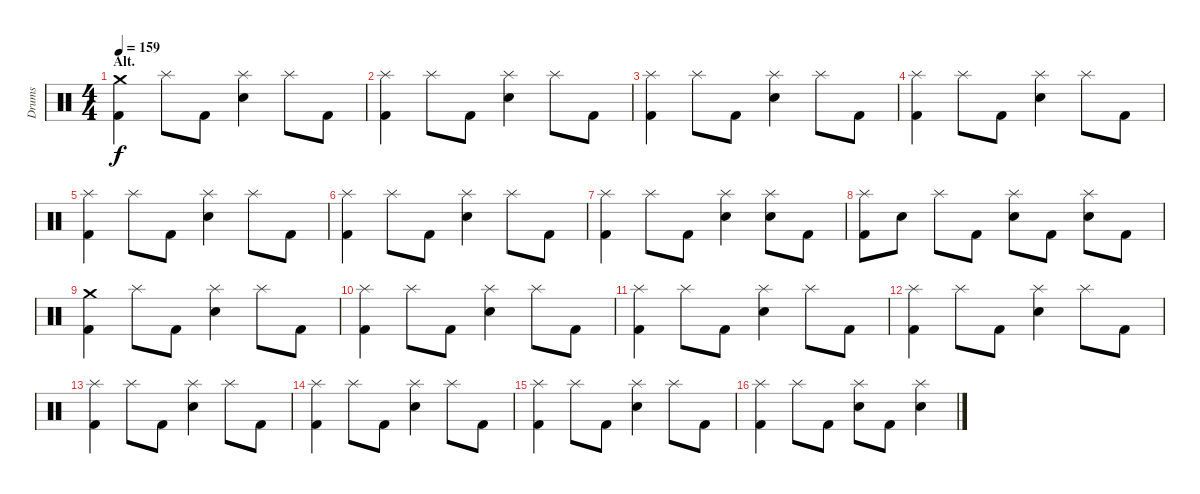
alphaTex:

\track ("Drums" "Drums") {instrument percussion}
\staff {score}
\articulation defaults
\ts (4 4)
\section ("" "Alt.")
\tempo 159
\clef neutral
\ks c
("Crash medium (hit)" "Kick (hit) 2").4{dy f} "Splash (hit)".8 "Kick (hit) 2".8 ("Splash (hit)" "Electric Snare (hit)").4 "Splash (hit)".8 "Kick (hit) 2".8 |
("Splash (hit)" "Kick (hit) 2").4 "Splash (hit)".8 "Kick (hit) 2".8 ("Splash (hit)" "Electric Snare (hit)").4 "Splash (hit)".8 "Kick (hit) 2".8 |
("Splash (hit)" "Kick (hit) 2").4 "Splash (hit)".8 "Kick (hit) 2".8 ("Splash (hit)" "Electric Snare (hit)").4 "Splash (hit)".8 "Kick (hit) 2".8 |
("Splash (hit)" "Kick (hit) 2").4 "Splash (hit)".8 "Kick (hit) 2".8 ("Splash (hit)" "Electric Snare (hit)").4 "Splash (hit)".8 "Kick (hit) 2".8 |
("Splash (hit)" "Kick (hit) 2").4 "Splash (hit)".8 "Kick (hit) 2".8 ("Splash (hit)" "Electric Snare (hit)").4 "Splash (hit)".8 "Kick (hit) 2".8 |
("Splash (hit)" "Kick (hit) 2").4 "Splash (hit)".8 "Kick (hit) 2".8 ("Splash (hit)" "Electric Snare (hit)").4 "Splash (hit)".8 "Kick (hit) 2".8 |
("Splash (hit)" "Kick (hit) 2").4 "Splash (hit)".8 "Kick (hit) 2".8 ("Splash (hit)" "Electric Snare (hit)").4 ("Splash (hit)" "Electric Snare (hit)").8 "Kick (hit) 2".8 |
("Splash (hit)" "Kick (hit) 2").8 "Electric Snare (hit)".8 "Splash (hit)".8 "Kick (hit) 2".8 ("Splash (hit)" "Electric Snare (hit)").8 "Kick (hit) 2".8 ("Splash (hit)" "Electric Snare (hit)").8 "Kick (hit) 2".8 |
("Crash medium (hit)" "Kick (hit) 2").4 "Splash (hit)".8 "Kick (hit) 2".8 ("Splash (hit)" "Electric Snare (hit)").4 "Splash (hit)".8 "Kick (hit) 2".8 |
("Splash (hit)" "Kick (hit) 2").4 "Splash (hit)".8 "Kick (hit) 2".8 ("Splash (hit)" "Electric Snare (hit)").4 "Splash (hit)".8 "Kick (hit) 2".8 |
("Splash (hit)" "Kick (hit) 2").4 "Splash (hit)".8 "Kick (hit) 2".8 ("Splash (hit)" "Electric Snare (hit)").4 "Splash (hit)".8 "Kick (hit) 2".8 |
("Splash (hit)" "Kick (hit) 2").4 "Splash (hit)".8 "Kick (hit) 2".8 ("Splash (hit)" "Electric Snare (hit)").4 "Splash (hit)".8 "Kick (hit) 2".8 |
("Splash (hit)" "Kick (hit) 2").4 "Splash (hit)".8 "Kick (hit) 2".8 ("Splash (hit)" "Electric Snare (hit)").4 "Splash (hit)".8 "Kick (hit) 2".8 |
("Splash (hit)" "Kick (hit) 2").4 "Splash (hit)".8 "Kick (hit) 2".8 ("Splash (hit)" "Electric Snare (hit)").4 "Splash (hit)".8 "Kick (hit) 2".8 |
("Splash (hit)" "Kick (hit) 2").4 "Splash (hit)".8 "Kick (hit) 2".8 ("Splash (hit)" "Electric Snare (hit)").4 "Splash (hit)".8 "Kick (hit) 2".8 |
("Splash (hit)" "Kick (hit) 2").4 "Splash (hit)".8 "Kick (hit) 2".8 ("Splash (hit)" "Electric Snare (hit)").8 "Kick (hit) 2".8 ("Splash (hit)" "Electric Snare (hit)").4
